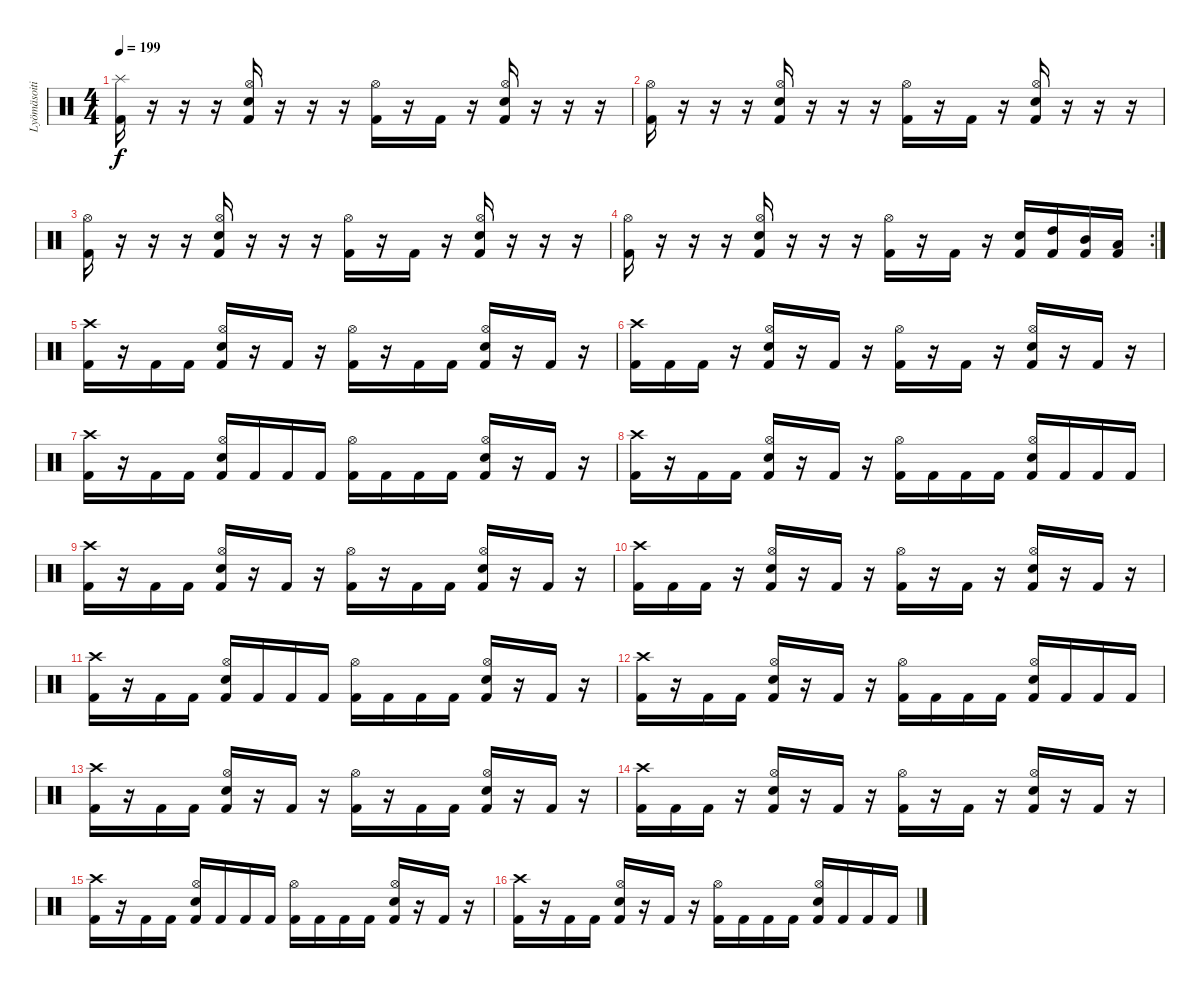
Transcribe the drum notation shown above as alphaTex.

\track ("Lyömäsoitin" "Lyömäsoiti") {instrument percussion}
\staff {score}
\articulation defaults
\ts (4 4)
\tempo 199
\clef neutral
\ks c
("Kick (hit) 2" "Splash (hit)").16{dy f} r.16 r.16 r.16 ("Kick (hit) 2" "Hi-Hat (open)" "Snare (hit) 2").16 r.16 r.16 r.16 ("Kick (hit) 2" "Hi-Hat (open)").16 r.16 "Kick (hit) 2".16 r.16 ("Kick (hit) 2" "Hi-Hat (open)" "Snare (hit) 2").16 r.16 r.16 r.16 |
("Kick (hit) 2" "Hi-Hat (open)").16 r.16 r.16 r.16 ("Kick (hit) 2" "Hi-Hat (open)" "Snare (hit) 2").16 r.16 r.16 r.16 ("Kick (hit) 2" "Hi-Hat (open)").16 r.16 "Kick (hit) 2".16 r.16 ("Kick (hit) 2" "Hi-Hat (open)" "Snare (hit) 2").16 r.16 r.16 r.16 |
("Kick (hit) 2" "Hi-Hat (open)").16 r.16 r.16 r.16 ("Kick (hit) 2" "Hi-Hat (open)" "Snare (hit) 2").16 r.16 r.16 r.16 ("Kick (hit) 2" "Hi-Hat (open)").16 r.16 "Kick (hit) 2".16 r.16 ("Kick (hit) 2" "Hi-Hat (open)" "Snare (hit) 2").16 r.16 r.16 r.16 |
\rc 2
("Kick (hit) 2" "Hi-Hat (open)").16 r.16 r.16 r.16 ("Kick (hit) 2" "Hi-Hat (open)" "Snare (hit) 2").16 r.16 r.16 r.16 ("Kick (hit) 2" "Hi-Hat (open)").16 r.16 "Kick (hit) 2".16 r.16 ("Kick (hit) 2" "Snare (hit) 2").16 ("Kick (hit) 2" "High Tom (hit)").16 ("Kick (hit) 2" "Mid Tom (hit)").16 ("Kick (hit) 2" "Low Tom (hit)").16 |
("Kick (hit) 2" "Crash high (hit)").16 r.16 "Kick (hit) 2".16 "Kick (hit) 2".16 ("Kick (hit) 2" "Snare (hit) 2" "Hi-Hat (open)").16 r.16 "Kick (hit) 2".16 r.16 ("Kick (hit) 2" "Hi-Hat (open)").16 r.16 "Kick (hit) 2".16 "Kick (hit) 2".16 ("Kick (hit) 2" "Snare (hit) 2" "Hi-Hat (open)").16 r.16 "Kick (hit) 2".16 r.16 |
("Kick (hit) 2" "Crash high (hit)").16 "Kick (hit) 2".16 "Kick (hit) 2".16 r.16 ("Kick (hit) 2" "Snare (hit) 2" "Hi-Hat (open)").16 r.16 "Kick (hit) 2".16 r.16 ("Kick (hit) 2" "Hi-Hat (open)").16 r.16 "Kick (hit) 2".16 r.16 ("Kick (hit) 2" "Snare (hit) 2" "Hi-Hat (open)").16 r.16 "Kick (hit) 2".16 r.16 |
("Kick (hit) 2" "Crash high (hit)").16 r.16 "Kick (hit) 2".16 "Kick (hit) 2".16 ("Kick (hit) 2" "Snare (hit) 2" "Hi-Hat (open)").16 "Kick (hit) 2".16 "Kick (hit) 2".16 "Kick (hit) 2".16 ("Kick (hit) 2" "Hi-Hat (open)").16 "Kick (hit) 2".16 "Kick (hit) 2".16 "Kick (hit) 2".16 ("Kick (hit) 2" "Snare (hit) 2" "Hi-Hat (open)").16 r.16 "Kick (hit) 2".16 r.16 |
("Kick (hit) 2" "Crash high (hit)").16 r.16 "Kick (hit) 2".16 "Kick (hit) 2".16 ("Kick (hit) 2" "Snare (hit) 2" "Hi-Hat (open)").16 r.16 "Kick (hit) 2".16 r.16 ("Kick (hit) 2" "Hi-Hat (open)").16 "Kick (hit) 2".16 "Kick (hit) 2".16 "Kick (hit) 2".16 ("Kick (hit) 2" "Snare (hit) 2" "Hi-Hat (open)").16 "Kick (hit) 2".16 "Kick (hit) 2".16 "Kick (hit) 2".16 |
("Kick (hit) 2" "Crash high (hit)").16 r.16 "Kick (hit) 2".16 "Kick (hit) 2".16 ("Kick (hit) 2" "Snare (hit) 2" "Hi-Hat (open)").16 r.16 "Kick (hit) 2".16 r.16 ("Kick (hit) 2" "Hi-Hat (open)").16 r.16 "Kick (hit) 2".16 "Kick (hit) 2".16 ("Kick (hit) 2" "Snare (hit) 2" "Hi-Hat (open)").16 r.16 "Kick (hit) 2".16 r.16 |
("Kick (hit) 2" "Crash high (hit)").16 "Kick (hit) 2".16 "Kick (hit) 2".16 r.16 ("Kick (hit) 2" "Snare (hit) 2" "Hi-Hat (open)").16 r.16 "Kick (hit) 2".16 r.16 ("Kick (hit) 2" "Hi-Hat (open)").16 r.16 "Kick (hit) 2".16 r.16 ("Kick (hit) 2" "Snare (hit) 2" "Hi-Hat (open)").16 r.16 "Kick (hit) 2".16 r.16 |
("Kick (hit) 2" "Crash high (hit)").16 r.16 "Kick (hit) 2".16 "Kick (hit) 2".16 ("Kick (hit) 2" "Snare (hit) 2" "Hi-Hat (open)").16 "Kick (hit) 2".16 "Kick (hit) 2".16 "Kick (hit) 2".16 ("Kick (hit) 2" "Hi-Hat (open)").16 "Kick (hit) 2".16 "Kick (hit) 2".16 "Kick (hit) 2".16 ("Kick (hit) 2" "Snare (hit) 2" "Hi-Hat (open)").16 r.16 "Kick (hit) 2".16 r.16 |
("Kick (hit) 2" "Crash high (hit)").16 r.16 "Kick (hit) 2".16 "Kick (hit) 2".16 ("Kick (hit) 2" "Snare (hit) 2" "Hi-Hat (open)").16 r.16 "Kick (hit) 2".16 r.16 ("Kick (hit) 2" "Hi-Hat (open)").16 "Kick (hit) 2".16 "Kick (hit) 2".16 "Kick (hit) 2".16 ("Kick (hit) 2" "Snare (hit) 2" "Hi-Hat (open)").16 "Kick (hit) 2".16 "Kick (hit) 2".16 "Kick (hit) 2".16 |
("Kick (hit) 2" "Crash high (hit)").16 r.16 "Kick (hit) 2".16 "Kick (hit) 2".16 ("Kick (hit) 2" "Snare (hit) 2" "Hi-Hat (open)").16 r.16 "Kick (hit) 2".16 r.16 ("Kick (hit) 2" "Hi-Hat (open)").16 r.16 "Kick (hit) 2".16 "Kick (hit) 2".16 ("Kick (hit) 2" "Snare (hit) 2" "Hi-Hat (open)").16 r.16 "Kick (hit) 2".16 r.16 |
("Kick (hit) 2" "Crash high (hit)").16 "Kick (hit) 2".16 "Kick (hit) 2".16 r.16 ("Kick (hit) 2" "Snare (hit) 2" "Hi-Hat (open)").16 r.16 "Kick (hit) 2".16 r.16 ("Kick (hit) 2" "Hi-Hat (open)").16 r.16 "Kick (hit) 2".16 r.16 ("Kick (hit) 2" "Snare (hit) 2" "Hi-Hat (open)").16 r.16 "Kick (hit) 2".16 r.16 |
("Kick (hit) 2" "Crash high (hit)").16 r.16 "Kick (hit) 2".16 "Kick (hit) 2".16 ("Kick (hit) 2" "Snare (hit) 2" "Hi-Hat (open)").16 "Kick (hit) 2".16 "Kick (hit) 2".16 "Kick (hit) 2".16 ("Kick (hit) 2" "Hi-Hat (open)").16 "Kick (hit) 2".16 "Kick (hit) 2".16 "Kick (hit) 2".16 ("Kick (hit) 2" "Snare (hit) 2" "Hi-Hat (open)").16 r.16 "Kick (hit) 2".16 r.16 |
("Kick (hit) 2" "Crash high (hit)").16 r.16 "Kick (hit) 2".16 "Kick (hit) 2".16 ("Kick (hit) 2" "Snare (hit) 2" "Hi-Hat (open)").16 r.16 "Kick (hit) 2".16 r.16 ("Kick (hit) 2" "Hi-Hat (open)").16 "Kick (hit) 2".16 "Kick (hit) 2".16 "Kick (hit) 2".16 ("Kick (hit) 2" "Snare (hit) 2" "Hi-Hat (open)").16 "Kick (hit) 2".16 "Kick (hit) 2".16 "Kick (hit) 2".16
